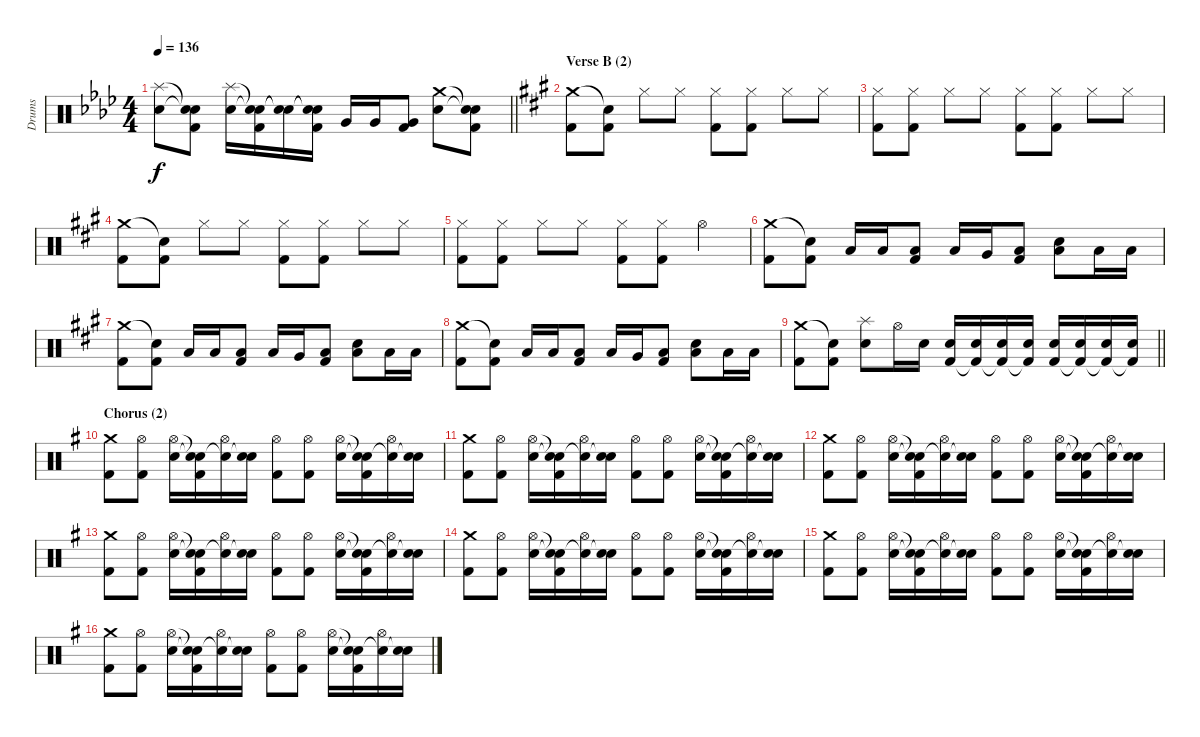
\track ("Drums" "Drums") {instrument percussion}
\staff {score}
\articulation defaults
\ts (4 4)
\tempo 136
\clef neutral
\barLineRight lightlight
\ks ab
("Splash (hit)" "Electric Snare (hit)").8{dy f} ("Snare (hit)"{t} "Snare (hit)"{t} "Kick (hit) 2").8 ("Splash (hit)" "Electric Snare (hit)").16 ("Snare (hit)"{t} "Snare (hit)"{t} "Kick (hit) 2").16 ("Snare (hit)"{t} "Snare (hit)"{t}).16 ("Snare (hit)"{t} "Snare (hit)"{t} "Kick (hit) 2").16 "Very Low Tom (hit)".16 "Very Low Tom (hit)".16 ("Very Low Tom (hit)" "Kick (hit) 2").8 ("Crash medium (hit)" "Electric Snare (hit)").8 ("Snare (hit)"{t} "Snare (hit)"{t} "Kick (hit) 2").8 |
\section ("" "Verse B (2)")
\ks a
("Crash medium (hit)" "Kick (hit) 2").8 ("Snare (hit)"{t} "Kick (hit) 2").8 "Hi-Hat (closed)".8 "Hi-Hat (closed)".8 ("Hi-Hat (closed)" "Kick (hit) 2").8 ("Hi-Hat (closed)" "Kick (hit) 2").8 "Hi-Hat (closed)".8 "Hi-Hat (closed)".8 |
("Hi-Hat (closed)" "Kick (hit) 2").8 ("Hi-Hat (closed)" "Kick (hit) 2").8 "Hi-Hat (closed)".8 "Hi-Hat (closed)".8 ("Hi-Hat (closed)" "Kick (hit) 2").8 ("Hi-Hat (closed)" "Kick (hit) 2").8 "Hi-Hat (closed)".8 "Hi-Hat (closed)".8 |
("Crash medium (hit)" "Kick (hit) 2").8 ("Snare (hit)"{t} "Kick (hit) 2").8 "Hi-Hat (closed)".8 "Hi-Hat (closed)".8 ("Hi-Hat (closed)" "Kick (hit) 2").8 ("Hi-Hat (closed)" "Kick (hit) 2").8 "Hi-Hat (closed)".8 "Hi-Hat (closed)".8 |
("Hi-Hat (closed)" "Kick (hit) 2").8 ("Hi-Hat (closed)" "Kick (hit) 2").8 "Hi-Hat (closed)".8 "Hi-Hat (closed)".8 ("Hi-Hat (closed)" "Kick (hit) 2").8 ("Hi-Hat (closed)" "Kick (hit) 2").8 "Hi-Hat (open)".4 |
("Crash medium (hit)" "Kick (hit) 2").8 ("Snare (hit)"{t} "Kick (hit) 2").8 "Low Floor Tom (hit)".16 "Low Tom (hit)".16 ("Low Floor Tom (hit)" "Kick (hit) 2").8 "Low Floor Tom (hit)".16 "Very Low Tom (hit)".16 ("Low Floor Tom (hit)" "Kick (hit) 2").8 ("Electric Snare (hit)" "Low Floor Tom (hit)").8 "Low Floor Tom (hit)".16 "Low Floor Tom (hit)".16 |
("Crash medium (hit)" "Kick (hit) 2").8 ("Snare (hit)"{t} "Kick (hit) 2").8 "Low Floor Tom (hit)".16 "Low Tom (hit)".16 ("Low Floor Tom (hit)" "Kick (hit) 2").8 "Low Floor Tom (hit)".16 "Very Low Tom (hit)".16 ("Low Floor Tom (hit)" "Kick (hit) 2").8 ("Electric Snare (hit)" "Low Floor Tom (hit)").8 "Low Floor Tom (hit)".16 "Low Floor Tom (hit)".16 |
("Crash medium (hit)" "Kick (hit) 2").8 ("Snare (hit)"{t} "Kick (hit) 2").8 "Low Floor Tom (hit)".16 "Low Tom (hit)".16 ("Low Floor Tom (hit)" "Kick (hit) 2").8 "Low Floor Tom (hit)".16 "Very Low Tom (hit)".16 ("Low Floor Tom (hit)" "Kick (hit) 2").8 ("Electric Snare (hit)" "Low Floor Tom (hit)").8 "Low Floor Tom (hit)".16 "Low Floor Tom (hit)".16 |
\barLineRight lightlight
("Crash medium (hit)" "Kick (hit) 2").8 ("Snare (hit)"{t} "Kick (hit) 2").8 ("Splash (hit)" "Electric Snare (hit)").8 "Hi-Hat (open)".16 "Electric Snare (hit)".16 ("Electric Snare (hit)" "Kick (hit) 2").16 ("Electric Snare (hit)" "Kick (hit) 2"{t}).16 ("Electric Snare (hit)" "Kick (hit) 2"{t}).16 ("Electric Snare (hit)" "Kick (hit) 2"{t}).16 ("Electric Snare (hit)" "Kick (hit) 2").16 ("Electric Snare (hit)" "Kick (hit) 2"{t}).16 ("Electric Snare (hit)" "Kick (hit) 2"{t}).16 ("Electric Snare (hit)" "Kick (hit) 2"{t}).16 |
\section ("" "Chorus (2)")
\ks g
("Crash medium (hit)" "Kick (hit) 2").8 ("Hi-Hat (open)" "Kick (hit) 2").8 ("Hi-Hat (open)" "Electric Snare (hit)").16 ("Snare (hit)"{t} "Snare (hit)"{t} "Kick (hit) 2").16 ("Hi-Hat (open)" "Snare (hit)"{t}).16 ("Electric Snare (hit)" "Snare (hit)"{t}).16 ("Hi-Hat (open)" "Kick (hit) 2").8 ("Hi-Hat (open)" "Kick (hit) 2").8 ("Hi-Hat (open)" "Electric Snare (hit)").16 ("Snare (hit)"{t} "Snare (hit)"{t} "Kick (hit) 2").16 ("Hi-Hat (open)" "Snare (hit)"{t}).16 ("Electric Snare (hit)" "Snare (hit)"{t}).16 |
("Crash medium (hit)" "Kick (hit) 2").8 ("Hi-Hat (open)" "Kick (hit) 2").8 ("Hi-Hat (open)" "Electric Snare (hit)").16 ("Snare (hit)"{t} "Snare (hit)"{t} "Kick (hit) 2").16 ("Hi-Hat (open)" "Snare (hit)"{t}).16 ("Electric Snare (hit)" "Snare (hit)"{t}).16 ("Hi-Hat (open)" "Kick (hit) 2").8 ("Hi-Hat (open)" "Kick (hit) 2").8 ("Hi-Hat (open)" "Electric Snare (hit)").16 ("Snare (hit)"{t} "Snare (hit)"{t} "Kick (hit) 2").16 ("Hi-Hat (open)" "Snare (hit)"{t}).16 ("Electric Snare (hit)" "Snare (hit)"{t}).16 |
("Crash medium (hit)" "Kick (hit) 2").8 ("Hi-Hat (open)" "Kick (hit) 2").8 ("Hi-Hat (open)" "Electric Snare (hit)").16 ("Snare (hit)"{t} "Snare (hit)"{t} "Kick (hit) 2").16 ("Hi-Hat (open)" "Snare (hit)"{t}).16 ("Electric Snare (hit)" "Snare (hit)"{t}).16 ("Hi-Hat (open)" "Kick (hit) 2").8 ("Hi-Hat (open)" "Kick (hit) 2").8 ("Hi-Hat (open)" "Electric Snare (hit)").16 ("Snare (hit)"{t} "Snare (hit)"{t} "Kick (hit) 2").16 ("Hi-Hat (open)" "Snare (hit)"{t}).16 ("Electric Snare (hit)" "Snare (hit)"{t}).16 |
("Crash medium (hit)" "Kick (hit) 2").8 ("Hi-Hat (open)" "Kick (hit) 2").8 ("Hi-Hat (open)" "Electric Snare (hit)").16 ("Snare (hit)"{t} "Snare (hit)"{t} "Kick (hit) 2").16 ("Hi-Hat (open)" "Snare (hit)"{t}).16 ("Electric Snare (hit)" "Snare (hit)"{t}).16 ("Hi-Hat (open)" "Kick (hit) 2").8 ("Hi-Hat (open)" "Kick (hit) 2").8 ("Hi-Hat (open)" "Electric Snare (hit)").16 ("Snare (hit)"{t} "Snare (hit)"{t} "Kick (hit) 2").16 ("Hi-Hat (open)" "Snare (hit)"{t}).16 ("Electric Snare (hit)" "Snare (hit)"{t}).16 |
("Crash medium (hit)" "Kick (hit) 2").8 ("Hi-Hat (open)" "Kick (hit) 2").8 ("Hi-Hat (open)" "Electric Snare (hit)").16 ("Snare (hit)"{t} "Snare (hit)"{t} "Kick (hit) 2").16 ("Hi-Hat (open)" "Snare (hit)"{t}).16 ("Electric Snare (hit)" "Snare (hit)"{t}).16 ("Hi-Hat (open)" "Kick (hit) 2").8 ("Hi-Hat (open)" "Kick (hit) 2").8 ("Hi-Hat (open)" "Electric Snare (hit)").16 ("Snare (hit)"{t} "Snare (hit)"{t} "Kick (hit) 2").16 ("Hi-Hat (open)" "Snare (hit)"{t}).16 ("Electric Snare (hit)" "Snare (hit)"{t}).16 |
("Crash medium (hit)" "Kick (hit) 2").8 ("Hi-Hat (open)" "Kick (hit) 2").8 ("Hi-Hat (open)" "Electric Snare (hit)").16 ("Snare (hit)"{t} "Snare (hit)"{t} "Kick (hit) 2").16 ("Hi-Hat (open)" "Snare (hit)"{t}).16 ("Electric Snare (hit)" "Snare (hit)"{t}).16 ("Hi-Hat (open)" "Kick (hit) 2").8 ("Hi-Hat (open)" "Kick (hit) 2").8 ("Hi-Hat (open)" "Electric Snare (hit)").16 ("Snare (hit)"{t} "Snare (hit)"{t} "Kick (hit) 2").16 ("Hi-Hat (open)" "Snare (hit)"{t}).16 ("Electric Snare (hit)" "Snare (hit)"{t}).16 |
("Crash medium (hit)" "Kick (hit) 2").8 ("Hi-Hat (open)" "Kick (hit) 2").8 ("Hi-Hat (open)" "Electric Snare (hit)").16 ("Snare (hit)"{t} "Snare (hit)"{t} "Kick (hit) 2").16 ("Hi-Hat (open)" "Snare (hit)"{t}).16 ("Electric Snare (hit)" "Snare (hit)"{t}).16 ("Hi-Hat (open)" "Kick (hit) 2").8 ("Hi-Hat (open)" "Kick (hit) 2").8 ("Hi-Hat (open)" "Electric Snare (hit)").16 ("Snare (hit)"{t} "Snare (hit)"{t} "Kick (hit) 2").16 ("Hi-Hat (open)" "Snare (hit)"{t}).16 ("Electric Snare (hit)" "Snare (hit)"{t}).16
